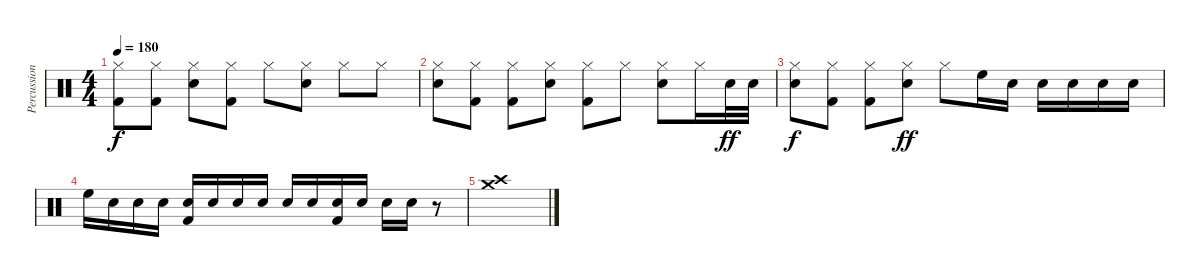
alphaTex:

\track ("Percussion" "Percussion") {instrument percussion}
\staff {score}
\articulation defaults
\ts (4 4)
\tempo 180
\clef neutral
\ks c
("Hi-Hat (closed)" "Kick (hit) 2").8{dy f} ("Hi-Hat (closed)" "Kick (hit) 2").8 ("Hi-Hat (closed)" "Electric Snare (hit)").8 ("Hi-Hat (closed)" "Kick (hit) 2").8 "Hi-Hat (closed)".8 ("Hi-Hat (closed)" "Electric Snare (hit)").8 "Hi-Hat (closed)".8 "Hi-Hat (closed)".8 |
("Hi-Hat (closed)" "Electric Snare (hit)").8 ("Hi-Hat (closed)" "Kick (hit) 2").8 ("Hi-Hat (closed)" "Kick (hit) 2").8 ("Hi-Hat (closed)" "Electric Snare (hit)").8 ("Hi-Hat (closed)" "Kick (hit) 2").8 "Hi-Hat (closed)".8 ("Hi-Hat (closed)" "Electric Snare (hit)").8 "Hi-Hat (closed)".16 "Electric Snare (hit)".32{dy ff} "Electric Snare (hit)".32 |
("Hi-Hat (closed)" "Electric Snare (hit)").8{dy f} ("Hi-Hat (closed)" "Kick (hit) 2").8 ("Hi-Hat (closed)" "Kick (hit) 2").8 ("Hi-Hat (closed)" "Electric Snare (hit)").8{dy ff} "Hi-Hat (closed)".8 "High Floor Tom (hit)".16 "Electric Snare (hit)".16 "Electric Snare (hit)".16 "Electric Snare (hit)".16 "Electric Snare (hit)".16 "Electric Snare (hit)".16 |
"High Floor Tom (hit)".16 "Electric Snare (hit)".16 "Electric Snare (hit)".16 "Electric Snare (hit)".16 ("Electric Snare (hit)" "Kick (hit) 2").16 "Electric Snare (hit)".16 "Electric Snare (hit)".16 "Electric Snare (hit)".16 "Electric Snare (hit)".16 "Electric Snare (hit)".16 ("Electric Snare (hit)" "Kick (hit) 2").16 "Electric Snare (hit)".16 "Electric Snare (hit)".16 "Electric Snare (hit)".16 r.8 |
("Crash high (hit)" "Crash medium (hit)").1
